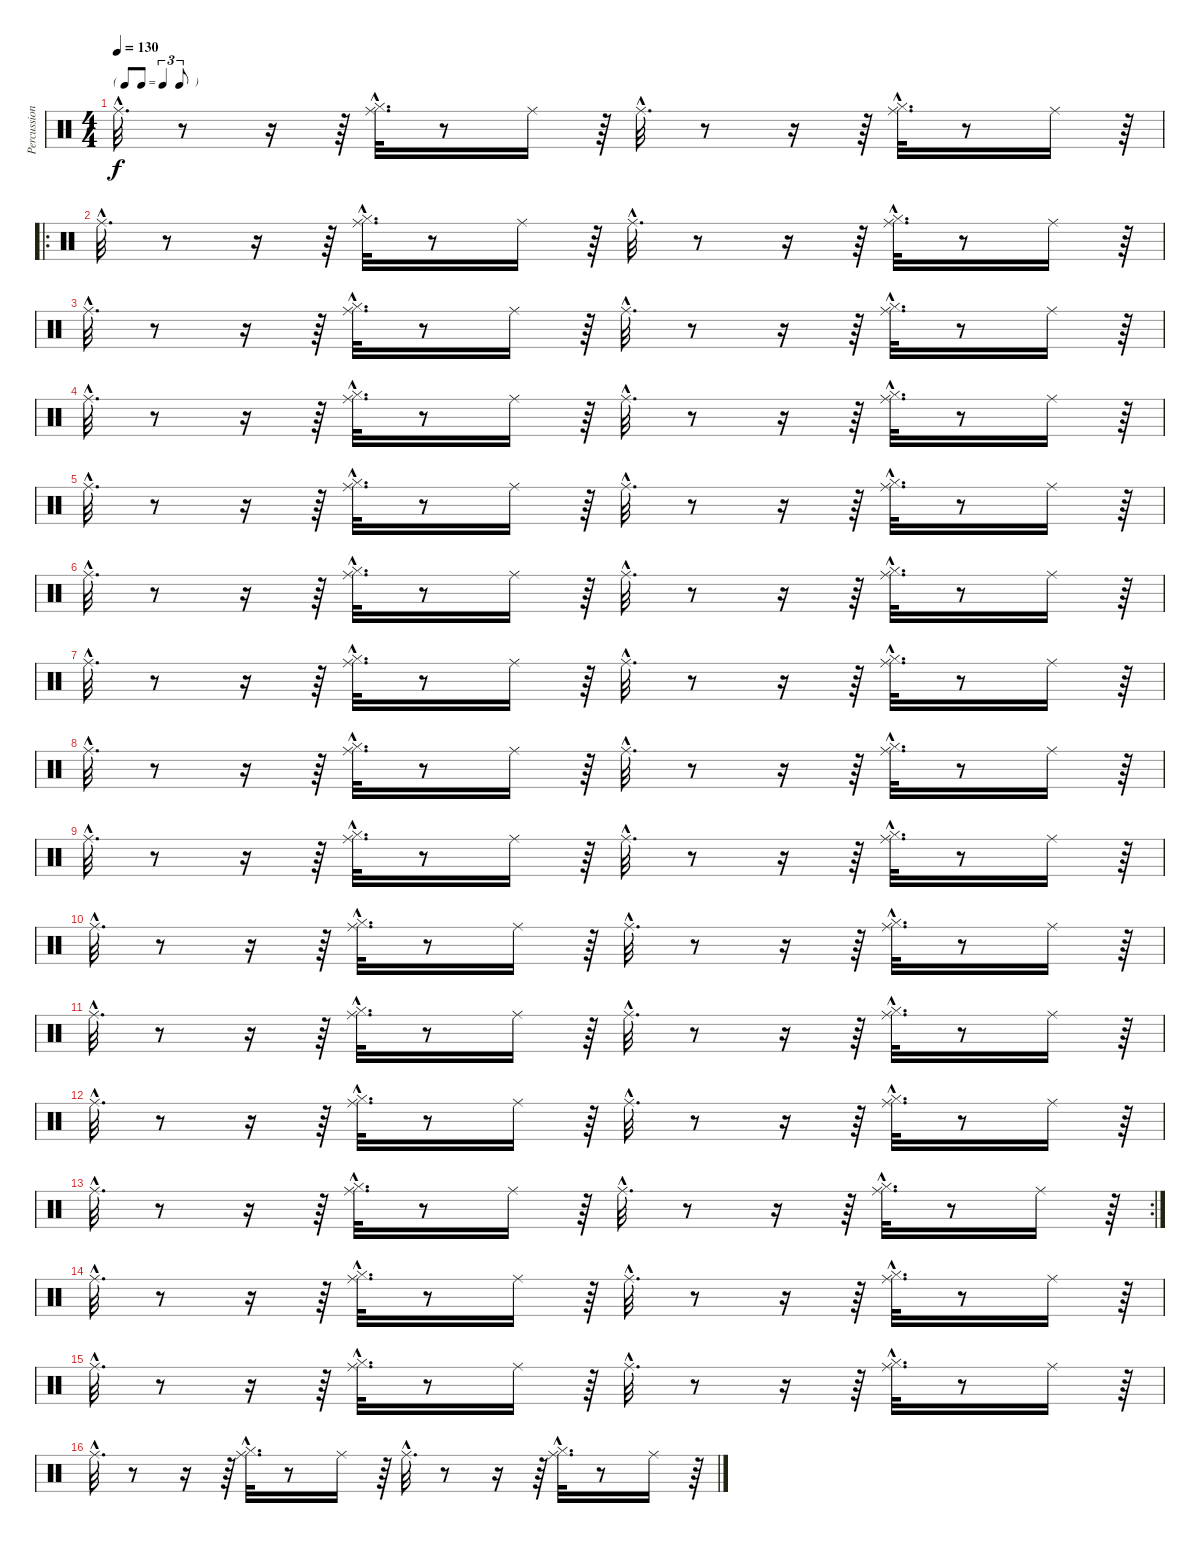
\track ("Percussions" "Percussion") {instrument percussion}
\staff {score}
\articulation defaults
\ts (4 4)
\tf triplet8th
\tempo 130
\clef neutral
\ks c "Ride (middle)"{hac}.32{d dy f}
r.8 r.16 r.64 ("Hi-Hat (closed)"{hac} "Ride (middle)"{hac}).32{d} r.8 "Ride (middle)".16 r.64 "Ride (middle)"{hac}.32{d} r.8 r.16 r.64 ("Hi-Hat (closed)"{hac} "Ride (middle)"{hac}).32{d} r.8 "Ride (middle)".16 r.64 |
\ro "Ride (middle)"{hac}.32{d}
r.8 r.16 r.64 ("Hi-Hat (closed)"{hac} "Ride (middle)"{hac}).32{d} r.8 "Ride (middle)".16 r.64 "Ride (middle)"{hac}.32{d} r.8 r.16 r.64 ("Hi-Hat (closed)"{hac} "Ride (middle)"{hac}).32{d} r.8 "Ride (middle)".16 r.64 |
"Ride (middle)"{hac}.32{d} r.8 r.16 r.64 ("Hi-Hat (closed)"{hac} "Ride (middle)"{hac}).32{d} r.8 "Ride (middle)".16 r.64 "Ride (middle)"{hac}.32{d} r.8 r.16 r.64 ("Hi-Hat (closed)"{hac} "Ride (middle)"{hac}).32{d} r.8 "Ride (middle)".16 r.64 |
"Ride (middle)"{hac}.32{d} r.8 r.16 r.64 ("Hi-Hat (closed)"{hac} "Ride (middle)"{hac}).32{d} r.8 "Ride (middle)".16 r.64 "Ride (middle)"{hac}.32{d} r.8 r.16 r.64 ("Hi-Hat (closed)"{hac} "Ride (middle)"{hac}).32{d} r.8 "Ride (middle)".16 r.64 |
"Ride (middle)"{hac}.32{d} r.8 r.16 r.64 ("Hi-Hat (closed)"{hac} "Ride (middle)"{hac}).32{d} r.8 "Ride (middle)".16 r.64 "Ride (middle)"{hac}.32{d} r.8 r.16 r.64 ("Hi-Hat (closed)"{hac} "Ride (middle)"{hac}).32{d} r.8 "Ride (middle)".16 r.64 |
"Ride (middle)"{hac}.32{d} r.8 r.16 r.64 ("Hi-Hat (closed)"{hac} "Ride (middle)"{hac}).32{d} r.8 "Ride (middle)".16 r.64 "Ride (middle)"{hac}.32{d} r.8 r.16 r.64 ("Hi-Hat (closed)"{hac} "Ride (middle)"{hac}).32{d} r.8 "Ride (middle)".16 r.64 |
"Ride (middle)"{hac}.32{d} r.8 r.16 r.64 ("Hi-Hat (closed)"{hac} "Ride (middle)"{hac}).32{d} r.8 "Ride (middle)".16 r.64 "Ride (middle)"{hac}.32{d} r.8 r.16 r.64 ("Hi-Hat (closed)"{hac} "Ride (middle)"{hac}).32{d} r.8 "Ride (middle)".16 r.64 |
"Ride (middle)"{hac}.32{d} r.8 r.16 r.64 ("Hi-Hat (closed)"{hac} "Ride (middle)"{hac}).32{d} r.8 "Ride (middle)".16 r.64 "Ride (middle)"{hac}.32{d} r.8 r.16 r.64 ("Hi-Hat (closed)"{hac} "Ride (middle)"{hac}).32{d} r.8 "Ride (middle)".16 r.64 |
"Ride (middle)"{hac}.32{d} r.8 r.16 r.64 ("Hi-Hat (closed)"{hac} "Ride (middle)"{hac}).32{d} r.8 "Ride (middle)".16 r.64 "Ride (middle)"{hac}.32{d} r.8 r.16 r.64 ("Hi-Hat (closed)"{hac} "Ride (middle)"{hac}).32{d} r.8 "Ride (middle)".16 r.64 |
"Ride (middle)"{hac}.32{d} r.8 r.16 r.64 ("Hi-Hat (closed)"{hac} "Ride (middle)"{hac}).32{d} r.8 "Ride (middle)".16 r.64 "Ride (middle)"{hac}.32{d} r.8 r.16 r.64 ("Hi-Hat (closed)"{hac} "Ride (middle)"{hac}).32{d} r.8 "Ride (middle)".16 r.64 |
"Ride (middle)"{hac}.32{d} r.8 r.16 r.64 ("Hi-Hat (closed)"{hac} "Ride (middle)"{hac}).32{d} r.8 "Ride (middle)".16 r.64 "Ride (middle)"{hac}.32{d} r.8 r.16 r.64 ("Hi-Hat (closed)"{hac} "Ride (middle)"{hac}).32{d} r.8 "Ride (middle)".16 r.64 |
"Ride (middle)"{hac}.32{d} r.8 r.16 r.64 ("Hi-Hat (closed)"{hac} "Ride (middle)"{hac}).32{d} r.8 "Ride (middle)".16 r.64 "Ride (middle)"{hac}.32{d} r.8 r.16 r.64 ("Hi-Hat (closed)"{hac} "Ride (middle)"{hac}).32{d} r.8 "Ride (middle)".16 r.64 |
\rc 2 "Ride (middle)"{hac}.32{d}
r.8 r.16 r.64 ("Hi-Hat (closed)"{hac} "Ride (middle)"{hac}).32{d} r.8 "Ride (middle)".16 r.64 "Ride (middle)"{hac}.32{d} r.8 r.16 r.64 ("Hi-Hat (closed)"{hac} "Ride (middle)"{hac}).32{d} r.8 "Ride (middle)".16 r.64 |
"Ride (middle)"{hac}.32{d} r.8 r.16 r.64 ("Hi-Hat (closed)"{hac} "Ride (middle)"{hac}).32{d} r.8 "Ride (middle)".16 r.64 "Ride (middle)"{hac}.32{d} r.8 r.16 r.64 ("Hi-Hat (closed)"{hac} "Ride (middle)"{hac}).32{d} r.8 "Ride (middle)".16 r.64 |
"Ride (middle)"{hac}.32{d} r.8 r.16 r.64 ("Hi-Hat (closed)"{hac} "Ride (middle)"{hac}).32{d} r.8 "Ride (middle)".16 r.64 "Ride (middle)"{hac}.32{d} r.8 r.16 r.64 ("Hi-Hat (closed)"{hac} "Ride (middle)"{hac}).32{d} r.8 "Ride (middle)".16 r.64 |
"Ride (middle)"{hac}.32{d} r.8 r.16 r.64 ("Hi-Hat (closed)"{hac} "Ride (middle)"{hac}).32{d} r.8 "Ride (middle)".16 r.64 "Ride (middle)"{hac}.32{d} r.8 r.16 r.64 ("Hi-Hat (closed)"{hac} "Ride (middle)"{hac}).32{d} r.8 "Ride (middle)".16 r.64
